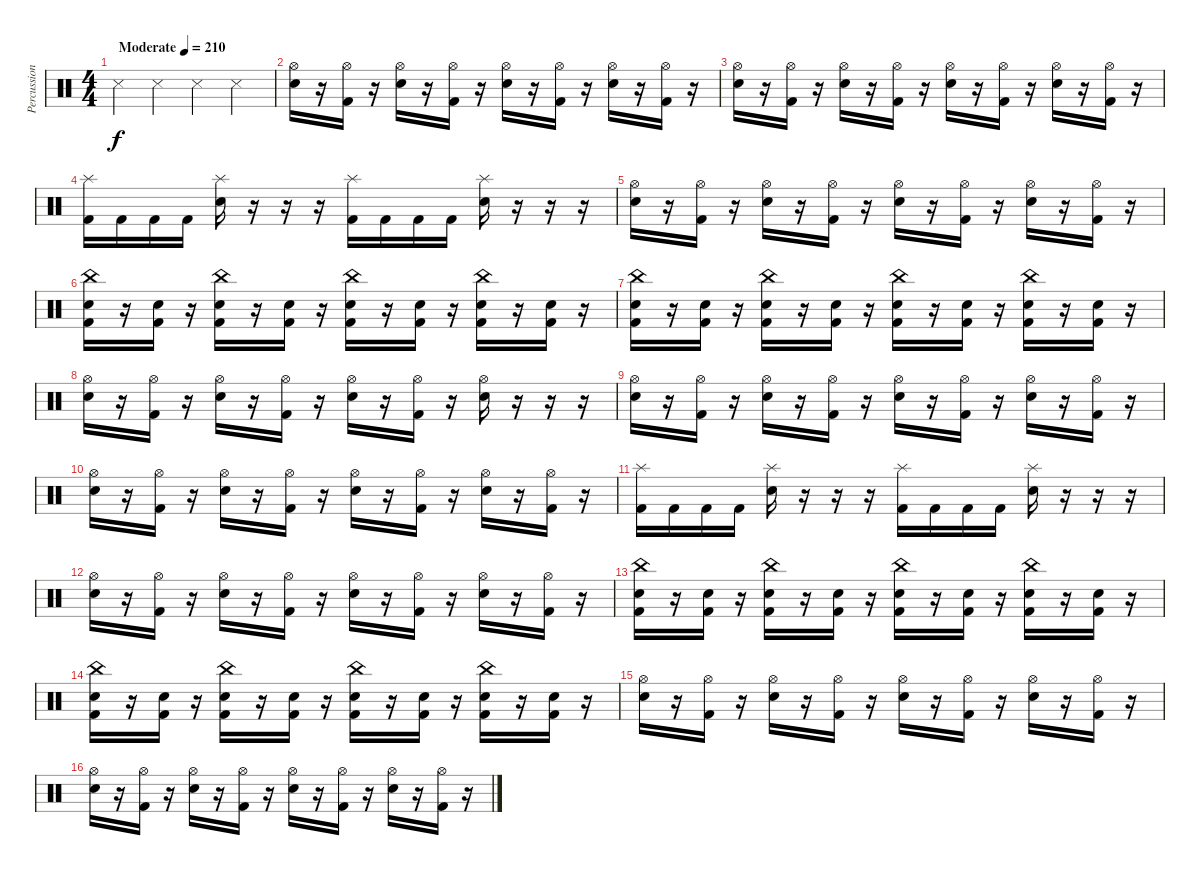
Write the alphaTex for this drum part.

\track ("Percussion" "Percussion") {instrument percussion}
\staff {score}
\articulation defaults
\ts (4 4)
\tempo (210 "Moderate")
\clef neutral
\ks c "Metronome (hit)".4{dy f} "Metronome (hit)".4 "Metronome (hit)".4 "Metronome (hit)".4
|
("Hi-Hat (open)" "Snare (hit) 2").16 r.16 ("Hi-Hat (open)" "Kick (hit) 2").16 r.16 ("Hi-Hat (open)" "Snare (hit) 2").16 r.16 ("Hi-Hat (open)" "Kick (hit) 2").16 r.16 ("Hi-Hat (open)" "Snare (hit) 2").16 r.16 ("Hi-Hat (open)" "Kick (hit) 2").16 r.16 ("Hi-Hat (open)" "Snare (hit) 2").16 r.16 ("Hi-Hat (open)" "Kick (hit) 2").16 r.16 |
("Hi-Hat (open)" "Snare (hit) 2").16 r.16 ("Hi-Hat (open)" "Kick (hit) 2").16 r.16 ("Hi-Hat (open)" "Snare (hit) 2").16 r.16 ("Hi-Hat (open)" "Kick (hit) 2").16 r.16 ("Hi-Hat (open)" "Snare (hit) 2").16 r.16 ("Hi-Hat (open)" "Kick (hit) 2").16 r.16 ("Hi-Hat (open)" "Snare (hit) 2").16 r.16 ("Hi-Hat (open)" "Kick (hit) 2").16 r.16 |
("Splash (hit)" "Kick (hit) 2").16 "Kick (hit) 2".16 "Kick (hit) 2".16 "Kick (hit) 2".16 ("Splash (hit)" "Snare (hit) 2").16 r.16 r.16 r.16 ("Splash (hit)" "Kick (hit) 2").16 "Kick (hit) 2".16 "Kick (hit) 2".16 "Kick (hit) 2".16 ("Splash (hit)" "Snare (hit) 2").16 r.16 r.16 r.16 |
("Hi-Hat (open)" "Snare (hit) 2").16 r.16 ("Hi-Hat (open)" "Kick (hit) 2").16 r.16 ("Hi-Hat (open)" "Snare (hit) 2").16 r.16 ("Hi-Hat (open)" "Kick (hit) 2").16 r.16 ("Hi-Hat (open)" "Snare (hit) 2").16 r.16 ("Hi-Hat (open)" "Kick (hit) 2").16 r.16 ("Hi-Hat (open)" "Snare (hit) 2").16 r.16 ("Hi-Hat (open)" "Kick (hit) 2").16 r.16 |
("China (hit)" "Snare (hit) 2" "Kick (hit) 2").16 r.16 ("Snare (hit) 2" "Kick (hit) 2").16 r.16 ("China (hit)" "Snare (hit) 2" "Kick (hit) 2").16 r.16 ("Snare (hit) 2" "Kick (hit) 2").16 r.16 ("China (hit)" "Snare (hit) 2" "Kick (hit) 2").16 r.16 ("Snare (hit) 2" "Kick (hit) 2").16 r.16 ("China (hit)" "Snare (hit) 2" "Kick (hit) 2").16 r.16 ("Snare (hit) 2" "Kick (hit) 2").16 r.16 |
("China (hit)" "Snare (hit) 2" "Kick (hit) 2").16 r.16 ("Snare (hit) 2" "Kick (hit) 2").16 r.16 ("China (hit)" "Snare (hit) 2" "Kick (hit) 2").16 r.16 ("Snare (hit) 2" "Kick (hit) 2").16 r.16 ("China (hit)" "Snare (hit) 2" "Kick (hit) 2").16 r.16 ("Snare (hit) 2" "Kick (hit) 2").16 r.16 ("China (hit)" "Snare (hit) 2" "Kick (hit) 2").16 r.16 ("Snare (hit) 2" "Kick (hit) 2").16 r.16 |
("Hi-Hat (open)" "Snare (hit) 2").16 r.16 ("Hi-Hat (open)" "Kick (hit) 2").16 r.16 ("Hi-Hat (open)" "Snare (hit) 2").16 r.16 ("Hi-Hat (open)" "Kick (hit) 2").16 r.16 ("Hi-Hat (open)" "Snare (hit) 2").16 r.16 ("Hi-Hat (open)" "Kick (hit) 2").16 r.16 ("Hi-Hat (open)" "Snare (hit) 2").16 r.16 r.16 r.16 |
("Hi-Hat (open)" "Snare (hit) 2").16 r.16 ("Hi-Hat (open)" "Kick (hit) 2").16 r.16 ("Hi-Hat (open)" "Snare (hit) 2").16 r.16 ("Hi-Hat (open)" "Kick (hit) 2").16 r.16 ("Hi-Hat (open)" "Snare (hit) 2").16 r.16 ("Hi-Hat (open)" "Kick (hit) 2").16 r.16 ("Hi-Hat (open)" "Snare (hit) 2").16 r.16 ("Hi-Hat (open)" "Kick (hit) 2").16 r.16 |
("Hi-Hat (open)" "Snare (hit) 2").16 r.16 ("Hi-Hat (open)" "Kick (hit) 2").16 r.16 ("Hi-Hat (open)" "Snare (hit) 2").16 r.16 ("Hi-Hat (open)" "Kick (hit) 2").16 r.16 ("Hi-Hat (open)" "Snare (hit) 2").16 r.16 ("Hi-Hat (open)" "Kick (hit) 2").16 r.16 ("Hi-Hat (open)" "Snare (hit) 2").16 r.16 ("Hi-Hat (open)" "Kick (hit) 2").16 r.16 |
("Splash (hit)" "Kick (hit) 2").16 "Kick (hit) 2".16 "Kick (hit) 2".16 "Kick (hit) 2".16 ("Splash (hit)" "Snare (hit) 2").16 r.16 r.16 r.16 ("Splash (hit)" "Kick (hit) 2").16 "Kick (hit) 2".16 "Kick (hit) 2".16 "Kick (hit) 2".16 ("Splash (hit)" "Snare (hit) 2").16 r.16 r.16 r.16 |
("Hi-Hat (open)" "Snare (hit) 2").16 r.16 ("Hi-Hat (open)" "Kick (hit) 2").16 r.16 ("Hi-Hat (open)" "Snare (hit) 2").16 r.16 ("Hi-Hat (open)" "Kick (hit) 2").16 r.16 ("Hi-Hat (open)" "Snare (hit) 2").16 r.16 ("Hi-Hat (open)" "Kick (hit) 2").16 r.16 ("Hi-Hat (open)" "Snare (hit) 2").16 r.16 ("Hi-Hat (open)" "Kick (hit) 2").16 r.16 |
("China (hit)" "Snare (hit) 2" "Kick (hit) 2").16 r.16 ("Snare (hit) 2" "Kick (hit) 2").16 r.16 ("China (hit)" "Snare (hit) 2" "Kick (hit) 2").16 r.16 ("Snare (hit) 2" "Kick (hit) 2").16 r.16 ("China (hit)" "Snare (hit) 2" "Kick (hit) 2").16 r.16 ("Snare (hit) 2" "Kick (hit) 2").16 r.16 ("China (hit)" "Snare (hit) 2" "Kick (hit) 2").16 r.16 ("Snare (hit) 2" "Kick (hit) 2").16 r.16 |
("China (hit)" "Snare (hit) 2" "Kick (hit) 2").16 r.16 ("Snare (hit) 2" "Kick (hit) 2").16 r.16 ("China (hit)" "Snare (hit) 2" "Kick (hit) 2").16 r.16 ("Snare (hit) 2" "Kick (hit) 2").16 r.16 ("China (hit)" "Snare (hit) 2" "Kick (hit) 2").16 r.16 ("Snare (hit) 2" "Kick (hit) 2").16 r.16 ("China (hit)" "Snare (hit) 2" "Kick (hit) 2").16 r.16 ("Snare (hit) 2" "Kick (hit) 2").16 r.16 |
("Hi-Hat (open)" "Snare (hit) 2").16 r.16 ("Hi-Hat (open)" "Kick (hit) 2").16 r.16 ("Hi-Hat (open)" "Snare (hit) 2").16 r.16 ("Hi-Hat (open)" "Kick (hit) 2").16 r.16 ("Hi-Hat (open)" "Snare (hit) 2").16 r.16 ("Hi-Hat (open)" "Kick (hit) 2").16 r.16 ("Hi-Hat (open)" "Snare (hit) 2").16 r.16 ("Hi-Hat (open)" "Kick (hit) 2").16 r.16 |
("Hi-Hat (open)" "Snare (hit) 2").16 r.16 ("Hi-Hat (open)" "Kick (hit) 2").16 r.16 ("Hi-Hat (open)" "Snare (hit) 2").16 r.16 ("Hi-Hat (open)" "Kick (hit) 2").16 r.16 ("Hi-Hat (open)" "Snare (hit) 2").16 r.16 ("Hi-Hat (open)" "Kick (hit) 2").16 r.16 ("Hi-Hat (open)" "Snare (hit) 2").16 r.16 ("Hi-Hat (open)" "Kick (hit) 2").16 r.16
